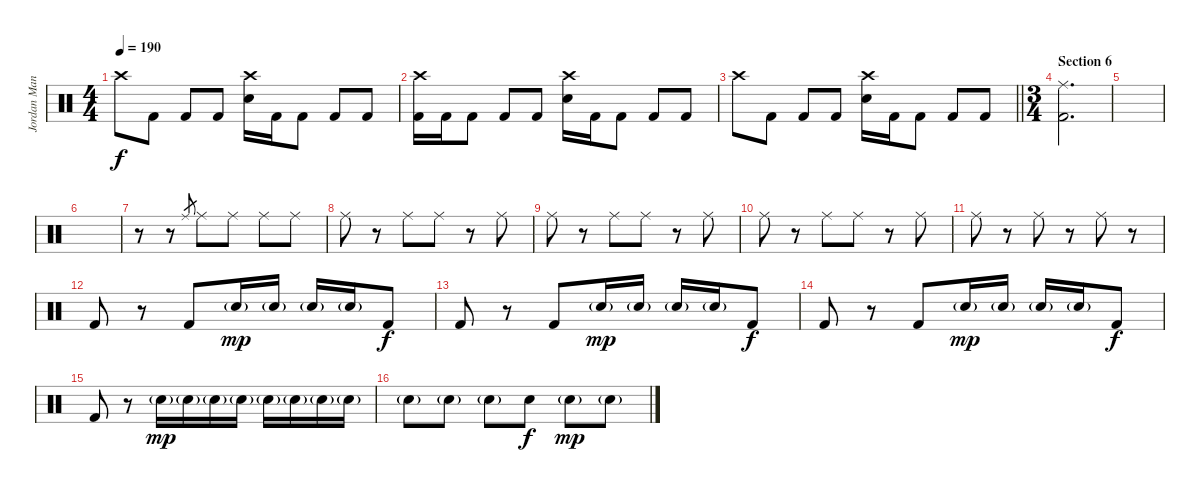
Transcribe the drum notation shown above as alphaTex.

\track ("Jordan Mancino" "Jordan Man") {instrument percussion}
\staff {score}
\articulation defaults
\ts (4 4)
\tempo 190
\clef neutral
\ks c "Crash high (hit)".8{dy f} "Kick (hit) 2".8 "Kick (hit) 2".8 "Kick (hit) 2".8
("Crash high (hit)" "Electric Snare (hit)").16 "Kick (hit) 2".16 "Kick (hit) 2".8 "Kick (hit) 2".8 "Kick (hit) 2".8 |
("Crash high (hit)" "Kick (hit) 2").16 "Kick (hit) 2".16 "Kick (hit) 2".8 "Kick (hit) 2".8 "Kick (hit) 2".8 ("Crash high (hit)" "Electric Snare (hit)").16 "Kick (hit) 2".16 "Kick (hit) 2".8 "Kick (hit) 2".8 "Kick (hit) 2".8 |
\barLineRight lightlight "Crash high (hit)".8 "Kick (hit) 2".8 "Kick (hit) 2".8 "Kick (hit) 2".8
("Crash high (hit)" "Electric Snare (hit)").16 "Kick (hit) 2".16 "Kick (hit) 2".8 "Kick (hit) 2".8 "Kick (hit) 2".8 |
\ts (3 4)
\section ("" "Section 6")
("Ride (middle)" "Kick (hit) 2").2{d} |
|
|
r.8 r.8 "Ride (middle)".8{gr} "Ride (middle)".8 "Ride (middle)".8 "Ride (middle)".8 "Ride (middle)".8 |
"Ride (middle)".8 r.8 "Ride (middle)".8 "Ride (middle)".8 r.8 "Ride (middle)".8 |
"Ride (middle)".8 r.8 "Ride (middle)".8 "Ride (middle)".8 r.8 "Ride (middle)".8 |
"Ride (middle)".8 r.8 "Ride (middle)".8 "Ride (middle)".8 r.8 "Ride (middle)".8 |
"Ride (middle)".8 r.8 "Ride (middle)".8 r.8 "Ride (middle)".8 r.8 |
"Kick (hit) 2".8 r.8 "Kick (hit) 2".8 "Electric Snare (hit)"{g}.16{dy mp} "Electric Snare (hit)"{g}.16 "Electric Snare (hit)"{g}.16 "Electric Snare (hit)"{g}.16 "Kick (hit) 2".8{dy f} |
"Kick (hit) 2".8 r.8 "Kick (hit) 2".8 "Electric Snare (hit)"{g}.16{dy mp} "Electric Snare (hit)"{g}.16 "Electric Snare (hit)"{g}.16 "Electric Snare (hit)"{g}.16 "Kick (hit) 2".8{dy f} |
"Kick (hit) 2".8 r.8 "Kick (hit) 2".8 "Electric Snare (hit)"{g}.16{dy mp} "Electric Snare (hit)"{g}.16 "Electric Snare (hit)"{g}.16 "Electric Snare (hit)"{g}.16 "Kick (hit) 2".8{dy f} |
"Kick (hit) 2".8 r.8 "Electric Snare (hit)"{g}.16{dy mp} "Electric Snare (hit)"{g}.16 "Electric Snare (hit)"{g}.16 "Electric Snare (hit)"{g}.16 "Electric Snare (hit)"{g}.16 "Electric Snare (hit)"{g}.16 "Electric Snare (hit)"{g}.16 "Electric Snare (hit)"{g}.16 |
"Electric Snare (hit)"{g}.8 "Electric Snare (hit)"{g}.8 "Electric Snare (hit)"{g}.8 "Electric Snare (hit)".8{dy f} "Electric Snare (hit)"{g}.8{dy mp} "Electric Snare (hit)"{g}.8
